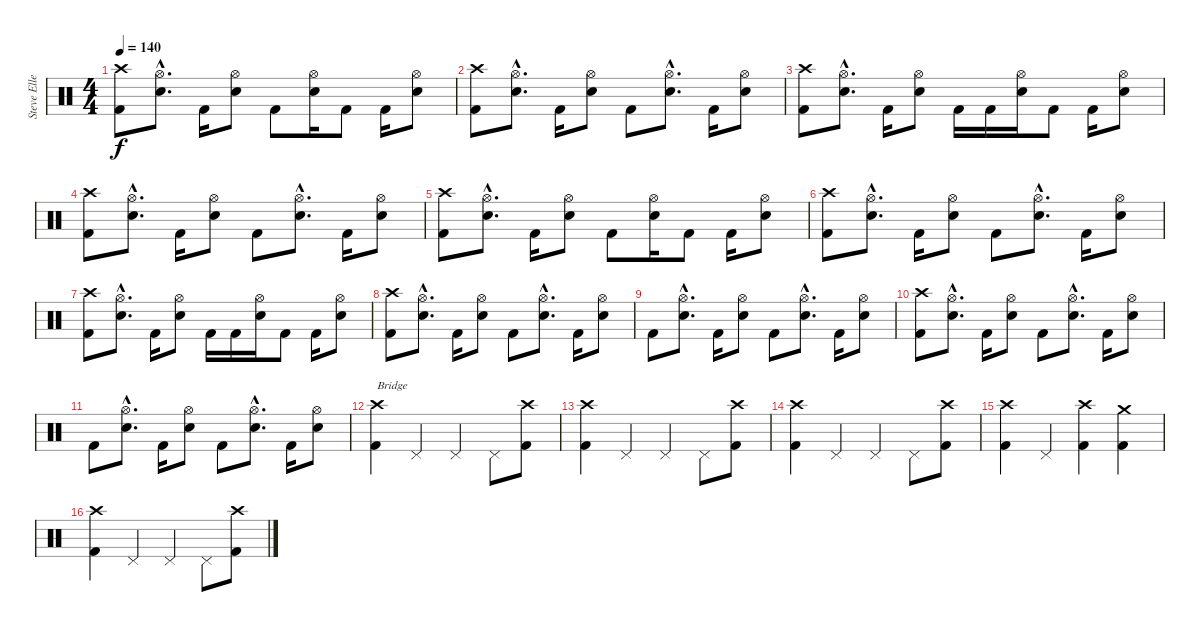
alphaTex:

\track ("Steve Ellett" "Steve Elle") {instrument percussion}
\staff {score}
\articulation defaults
\ts (4 4)
\tempo 140
\clef neutral
\ks c
("Crash high (hit)" "Kick (hit) 2").8{dy f} ("Hi-Hat (open)"{hac} "Snare (hit) 2"{hac}).8{d} "Kick (hit) 2".16 ("Hi-Hat (open)" "Snare (hit) 2").8 "Kick (hit) 2".8 ("Hi-Hat (open)" "Snare (hit) 2").16 "Kick (hit) 2".8 "Kick (hit) 2".16 ("Hi-Hat (open)" "Snare (hit) 2").8 |
("Crash high (hit)" "Kick (hit) 2").8 ("Hi-Hat (open)"{hac} "Snare (hit) 2"{hac}).8{d} "Kick (hit) 2".16 ("Hi-Hat (open)" "Snare (hit) 2").8 "Kick (hit) 2".8 ("Hi-Hat (open)"{hac} "Snare (hit) 2"{hac}).8{d} "Kick (hit) 2".16 ("Hi-Hat (open)" "Snare (hit) 2").8 |
("Crash high (hit)" "Kick (hit) 2").8 ("Hi-Hat (open)"{hac} "Snare (hit) 2"{hac}).8{d} "Kick (hit) 2".16 ("Hi-Hat (open)" "Snare (hit) 2").8 "Kick (hit) 2".16 "Kick (hit) 2".16 ("Hi-Hat (open)" "Snare (hit) 2").16 "Kick (hit) 2".8 "Kick (hit) 2".16 ("Hi-Hat (open)" "Snare (hit) 2").8 |
("Crash high (hit)" "Kick (hit) 2").8 ("Hi-Hat (open)"{hac} "Snare (hit) 2"{hac}).8{d} "Kick (hit) 2".16 ("Hi-Hat (open)" "Snare (hit) 2").8 "Kick (hit) 2".8 ("Hi-Hat (open)"{hac} "Snare (hit) 2"{hac}).8{d} "Kick (hit) 2".16 ("Hi-Hat (open)" "Snare (hit) 2").8 |
("Crash high (hit)" "Kick (hit) 2").8 ("Hi-Hat (open)"{hac} "Snare (hit) 2"{hac}).8{d} "Kick (hit) 2".16 ("Hi-Hat (open)" "Snare (hit) 2").8 "Kick (hit) 2".8 ("Hi-Hat (open)" "Snare (hit) 2").16 "Kick (hit) 2".8 "Kick (hit) 2".16 ("Hi-Hat (open)" "Snare (hit) 2").8 |
("Crash high (hit)" "Kick (hit) 2").8 ("Hi-Hat (open)"{hac} "Snare (hit) 2"{hac}).8{d} "Kick (hit) 2".16 ("Hi-Hat (open)" "Snare (hit) 2").8 "Kick (hit) 2".8 ("Hi-Hat (open)"{hac} "Snare (hit) 2"{hac}).8{d} "Kick (hit) 2".16 ("Hi-Hat (open)" "Snare (hit) 2").8 |
("Crash high (hit)" "Kick (hit) 2").8 ("Hi-Hat (open)"{hac} "Snare (hit) 2"{hac}).8{d} "Kick (hit) 2".16 ("Hi-Hat (open)" "Snare (hit) 2").8 "Kick (hit) 2".16 "Kick (hit) 2".16 ("Hi-Hat (open)" "Snare (hit) 2").16 "Kick (hit) 2".8 "Kick (hit) 2".16 ("Hi-Hat (open)" "Snare (hit) 2").8 |
("Crash high (hit)" "Kick (hit) 2").8 ("Hi-Hat (open)"{hac} "Snare (hit) 2"{hac}).8{d} "Kick (hit) 2".16 ("Hi-Hat (open)" "Snare (hit) 2").8 "Kick (hit) 2".8 ("Hi-Hat (open)"{hac} "Snare (hit) 2"{hac}).8{d} "Kick (hit) 2".16 ("Hi-Hat (open)" "Snare (hit) 2").8 |
"Kick (hit) 2".8 ("Hi-Hat (open)"{hac} "Snare (hit) 2"{hac}).8{d} "Kick (hit) 2".16 ("Hi-Hat (open)" "Snare (hit) 2").8 "Kick (hit) 2".8 ("Hi-Hat (open)"{hac} "Snare (hit) 2"{hac}).8{d} "Kick (hit) 2".16 ("Hi-Hat (open)" "Snare (hit) 2").8 |
("Crash high (hit)" "Kick (hit) 2").8 ("Hi-Hat (open)"{hac} "Snare (hit) 2"{hac}).8{d} "Kick (hit) 2".16 ("Hi-Hat (open)" "Snare (hit) 2").8 "Kick (hit) 2".8 ("Hi-Hat (open)"{hac} "Snare (hit) 2"{hac}).8{d} "Kick (hit) 2".16 ("Hi-Hat (open)" "Snare (hit) 2").8 |
"Kick (hit) 2".8 ("Hi-Hat (open)"{hac} "Snare (hit) 2"{hac}).8{d} "Kick (hit) 2".16 ("Hi-Hat (open)" "Snare (hit) 2").8 "Kick (hit) 2".8 ("Hi-Hat (open)"{hac} "Snare (hit) 2"{hac}).8{d} "Kick (hit) 2".16 ("Hi-Hat (open)" "Snare (hit) 2").8 |
("Crash high (hit)" "Kick (hit) 2").4{txt "Bridge"} "Pedal Hi-Hat (hit)".4 "Pedal Hi-Hat (hit)".4 "Pedal Hi-Hat (hit)".8 ("Crash high (hit)" "Kick (hit) 2").8 |
("Crash high (hit)" "Kick (hit) 2").4 "Pedal Hi-Hat (hit)".4 "Pedal Hi-Hat (hit)".4 "Pedal Hi-Hat (hit)".8 ("Crash high (hit)" "Kick (hit) 2").8 |
("Crash high (hit)" "Kick (hit) 2").4 "Pedal Hi-Hat (hit)".4 "Pedal Hi-Hat (hit)".4 "Pedal Hi-Hat (hit)".8 ("Crash high (hit)" "Kick (hit) 2").8 |
("Crash high (hit)" "Kick (hit) 2").4 "Pedal Hi-Hat (hit)".4 ("Crash high (hit)" "Kick (hit) 2").4 ("Crash medium (hit)" "Kick (hit) 2").4 |
("Crash high (hit)" "Kick (hit) 2").4 "Pedal Hi-Hat (hit)".4 "Pedal Hi-Hat (hit)".4 "Pedal Hi-Hat (hit)".8 ("Crash high (hit)" "Kick (hit) 2").8
